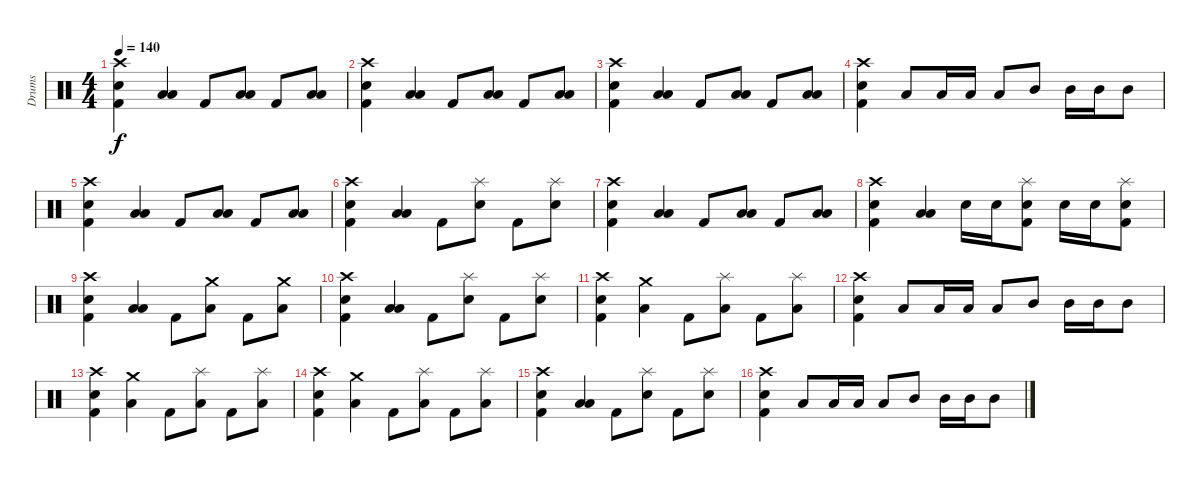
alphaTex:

\track ("Drums" "Drums") {instrument percussion}
\staff {score}
\articulation defaults
\ts (4 4)
\tempo 140
\clef neutral
\ks c
("Kick (hit) 2" "Snare (hit) 2" "Crash high (hit)").4{dy f} ("Low Floor Tom (hit)" "Low Floor Tom (hit)").4 "Kick (hit) 2".8 ("Low Floor Tom (hit)" "Low Floor Tom (hit)").8 "Kick (hit) 2".8 ("Low Floor Tom (hit)" "Low Floor Tom (hit)").8 |
("Kick (hit) 2" "Snare (hit) 2" "Crash high (hit)").4 ("Low Floor Tom (hit)" "Low Floor Tom (hit)").4 "Kick (hit) 2".8 ("Low Floor Tom (hit)" "Low Floor Tom (hit)").8 "Kick (hit) 2".8 ("Low Floor Tom (hit)" "Low Floor Tom (hit)").8 |
("Kick (hit) 2" "Snare (hit) 2" "Crash high (hit)").4 ("Low Floor Tom (hit)" "Low Floor Tom (hit)").4 "Kick (hit) 2".8 ("Low Floor Tom (hit)" "Low Floor Tom (hit)").8 "Kick (hit) 2".8 ("Low Floor Tom (hit)" "Low Floor Tom (hit)").8 |
("Kick (hit) 2" "Snare (hit) 2" "Crash high (hit)").4 "Low Tom (hit)".8 "Low Tom (hit)".16 "Low Tom (hit)".16 "Low Tom (hit)".8 "Mid Tom (hit)".8 "Mid Tom (hit)".16 "Mid Tom (hit)".16 "Mid Tom (hit)".8 |
("Kick (hit) 2" "Snare (hit) 2" "Crash high (hit)").4 ("Low Floor Tom (hit)" "Low Floor Tom (hit)").4 "Kick (hit) 2".8 ("Low Floor Tom (hit)" "Low Floor Tom (hit)").8 "Kick (hit) 2".8 ("Low Floor Tom (hit)" "Low Floor Tom (hit)").8 |
("Kick (hit) 2" "Snare (hit) 2" "Crash high (hit)").4 ("Low Floor Tom (hit)" "Low Floor Tom (hit)").4 "Kick (hit) 2".8 ("Snare (hit) 2" "Splash (hit)").8 "Kick (hit) 2".8 ("Snare (hit) 2" "Splash (hit)").8 |
("Kick (hit) 2" "Snare (hit) 2" "Crash high (hit)").4 ("Low Floor Tom (hit)" "Low Floor Tom (hit)").4 "Kick (hit) 2".8 ("Low Floor Tom (hit)" "Low Floor Tom (hit)").8 "Kick (hit) 2".8 ("Low Floor Tom (hit)" "Low Floor Tom (hit)").8 |
("Kick (hit) 2" "Snare (hit) 2" "Crash high (hit)").4 ("Low Floor Tom (hit)" "Low Floor Tom (hit)").4 "Snare (hit) 2".16 "Snare (hit) 2".16 ("Kick (hit) 2" "Snare (hit) 2" "Splash (hit)").8 "Snare (hit) 2".16 "Snare (hit) 2".16 ("Kick (hit) 2" "Snare (hit) 2" "Splash (hit)").8 |
("Kick (hit) 2" "Snare (hit) 2" "Crash high (hit)").4 ("Low Floor Tom (hit)" "Low Floor Tom (hit)").4 "Kick (hit) 2".8 ("Low Floor Tom (hit)" "Crash medium (hit)").8 "Kick (hit) 2".8 ("Low Floor Tom (hit)" "Crash medium (hit)").8 |
("Kick (hit) 2" "Snare (hit) 2" "Crash high (hit)").4 ("Low Floor Tom (hit)" "Low Floor Tom (hit)").4 "Kick (hit) 2".8 ("Snare (hit) 2" "Splash (hit)").8 "Kick (hit) 2".8 ("Snare (hit) 2" "Splash (hit)").8 |
("Kick (hit) 2" "Snare (hit) 2" "Crash high (hit)").4 ("Low Floor Tom (hit)" "Crash medium (hit)").4 "Kick (hit) 2".8 ("Low Floor Tom (hit)" "Splash (hit)").8 "Kick (hit) 2".8 ("Low Floor Tom (hit)" "Splash (hit)").8 |
("Kick (hit) 2" "Snare (hit) 2" "Crash high (hit)").4 "Low Tom (hit)".8 "Low Tom (hit)".16 "Low Tom (hit)".16 "Low Tom (hit)".8 "Mid Tom (hit)".8 "Mid Tom (hit)".16 "Mid Tom (hit)".16 "Mid Tom (hit)".8 |
("Kick (hit) 2" "Snare (hit) 2" "Crash high (hit)").4 ("Low Floor Tom (hit)" "Crash medium (hit)").4 "Kick (hit) 2".8 ("Low Floor Tom (hit)" "Splash (hit)").8 "Kick (hit) 2".8 ("Low Floor Tom (hit)" "Splash (hit)").8 |
("Kick (hit) 2" "Snare (hit) 2" "Crash high (hit)").4 ("Low Floor Tom (hit)" "Crash medium (hit)").4 "Kick (hit) 2".8 ("Low Floor Tom (hit)" "Splash (hit)").8 "Kick (hit) 2".8 ("Low Floor Tom (hit)" "Splash (hit)").8 |
("Kick (hit) 2" "Snare (hit) 2" "Crash high (hit)").4 ("Low Floor Tom (hit)" "Low Floor Tom (hit)").4 "Kick (hit) 2".8 ("Snare (hit) 2" "Splash (hit)").8 "Kick (hit) 2".8 ("Snare (hit) 2" "Splash (hit)").8 |
("Kick (hit) 2" "Snare (hit) 2" "Crash high (hit)").4 "Low Tom (hit)".8 "Low Tom (hit)".16 "Low Tom (hit)".16 "Low Tom (hit)".8 "Mid Tom (hit)".8 "Mid Tom (hit)".16 "Mid Tom (hit)".16 "Mid Tom (hit)".8
